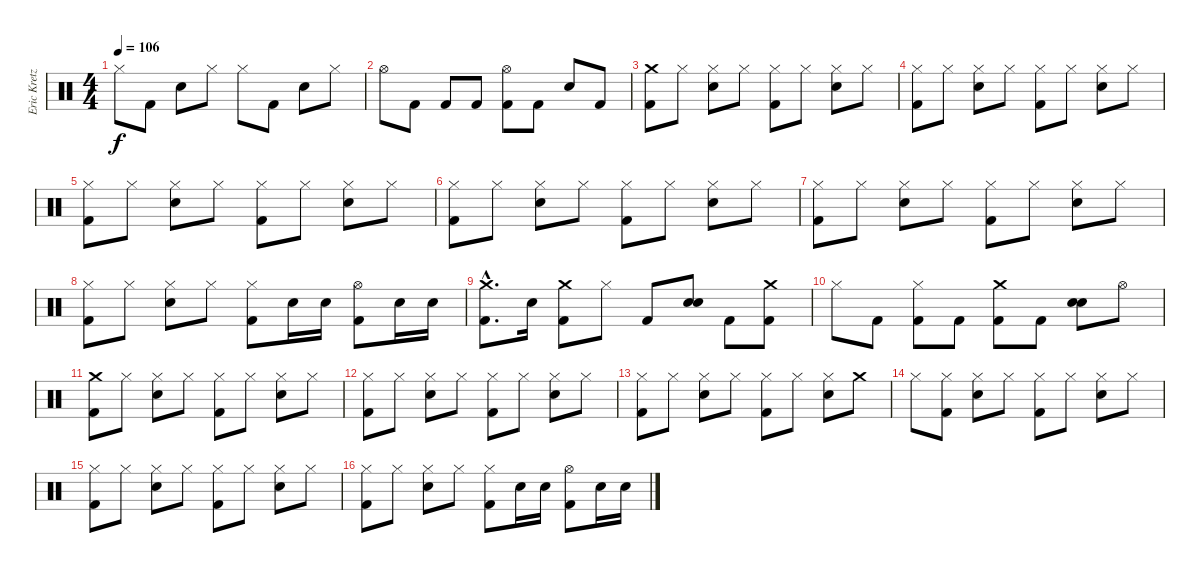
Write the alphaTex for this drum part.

\track ("Eric Kretz" "Eric Kretz") {instrument percussion}
\staff {score}
\articulation defaults
\ts (4 4)
\tempo 106
\clef neutral
\ks c "Hi-Hat (closed)".8{dy f} "Kick (hit) 2".8 "Electric Snare (hit)".8 "Hi-Hat (closed)".8 "Hi-Hat (closed)".8 "Kick (hit) 2".8 "Electric Snare (hit)".8 "Hi-Hat (closed)".8
|
"Hi-Hat (open)".8 "Kick (hit) 2".8 "Kick (hit) 2".8 "Kick (hit) 2".8 ("Hi-Hat (open)" "Kick (hit) 2").8 "Kick (hit) 2".8 "Electric Snare (hit)".8 "Kick (hit) 2".8 |
("Crash medium (hit)" "Kick (hit) 2").8 "Hi-Hat (closed)".8 ("Hi-Hat (closed)" "Electric Snare (hit)").8 "Hi-Hat (closed)".8 ("Hi-Hat (closed)" "Kick (hit) 2").8 "Hi-Hat (closed)".8 ("Hi-Hat (closed)" "Electric Snare (hit)").8 "Hi-Hat (closed)".8 |
("Hi-Hat (closed)" "Kick (hit) 2").8 "Hi-Hat (closed)".8 ("Hi-Hat (closed)" "Electric Snare (hit)").8 "Hi-Hat (closed)".8 ("Hi-Hat (closed)" "Kick (hit) 2").8 "Hi-Hat (closed)".8 ("Hi-Hat (closed)" "Electric Snare (hit)").8 "Hi-Hat (closed)".8 |
("Hi-Hat (closed)" "Kick (hit) 2").8 "Hi-Hat (closed)".8 ("Hi-Hat (closed)" "Electric Snare (hit)").8 "Hi-Hat (closed)".8 ("Hi-Hat (closed)" "Kick (hit) 2").8 "Hi-Hat (closed)".8 ("Hi-Hat (closed)" "Electric Snare (hit)").8 "Hi-Hat (closed)".8 |
("Hi-Hat (closed)" "Kick (hit) 2").8 "Hi-Hat (closed)".8 ("Hi-Hat (closed)" "Electric Snare (hit)").8 "Hi-Hat (closed)".8 ("Hi-Hat (closed)" "Kick (hit) 2").8 "Hi-Hat (closed)".8 ("Hi-Hat (closed)" "Electric Snare (hit)").8 "Hi-Hat (closed)".8 |
("Hi-Hat (closed)" "Kick (hit) 2").8 "Hi-Hat (closed)".8 ("Hi-Hat (closed)" "Electric Snare (hit)").8 "Hi-Hat (closed)".8 ("Hi-Hat (closed)" "Kick (hit) 2").8 "Hi-Hat (closed)".8 ("Hi-Hat (closed)" "Electric Snare (hit)").8 "Hi-Hat (closed)".8 |
("Hi-Hat (closed)" "Kick (hit) 2").8 "Hi-Hat (closed)".8 ("Hi-Hat (closed)" "Electric Snare (hit)").8 "Hi-Hat (closed)".8 ("Hi-Hat (closed)" "Kick (hit) 2").8 "Electric Snare (hit)".16 "Electric Snare (hit)".16 ("Hi-Hat (open)" "Kick (hit) 2").8 "Electric Snare (hit)".16 "Electric Snare (hit)".16 |
("Crash medium (hit)"{hac} "Kick (hit) 2"{hac}).8{d} "Electric Snare (hit)".16 ("Crash medium (hit)" "Kick (hit) 2").8 "Hi-Hat (closed)".8 "Kick (hit) 2".8 ("Electric Snare (hit)" "Electric Snare (hit)").8 "Kick (hit) 2".8 ("Crash medium (hit)" "Kick (hit) 2").8 |
"Hi-Hat (closed)".8 "Kick (hit) 2".8 ("Hi-Hat (closed)" "Kick (hit) 2").8 "Kick (hit) 2".8 ("Crash medium (hit)" "Kick (hit) 2").8 "Kick (hit) 2".8 ("Electric Snare (hit)" "Electric Snare (hit)").8 "Hi-Hat (open)".8 |
("Crash medium (hit)" "Kick (hit) 2").8 "Hi-Hat (closed)".8 ("Hi-Hat (closed)" "Electric Snare (hit)").8 "Hi-Hat (closed)".8 ("Hi-Hat (closed)" "Kick (hit) 2").8 "Hi-Hat (closed)".8 ("Hi-Hat (closed)" "Electric Snare (hit)").8 "Hi-Hat (closed)".8 |
("Hi-Hat (closed)" "Kick (hit) 2").8 "Hi-Hat (closed)".8 ("Hi-Hat (closed)" "Electric Snare (hit)").8 "Hi-Hat (closed)".8 ("Hi-Hat (closed)" "Kick (hit) 2").8 "Hi-Hat (closed)".8 ("Hi-Hat (closed)" "Electric Snare (hit)").8 "Hi-Hat (closed)".8 |
("Hi-Hat (closed)" "Kick (hit) 2").8 "Hi-Hat (closed)".8 ("Hi-Hat (closed)" "Electric Snare (hit)").8 "Hi-Hat (closed)".8 ("Hi-Hat (closed)" "Kick (hit) 2").8 "Hi-Hat (closed)".8 ("Hi-Hat (closed)" "Electric Snare (hit)").8 "Crash medium (hit)".8 |
"Hi-Hat (closed)".8 ("Hi-Hat (closed)" "Kick (hit) 2").8 ("Hi-Hat (closed)" "Electric Snare (hit)").8 "Hi-Hat (closed)".8 ("Hi-Hat (closed)" "Kick (hit) 2").8 "Hi-Hat (closed)".8 ("Hi-Hat (closed)" "Electric Snare (hit)").8 "Hi-Hat (closed)".8 |
("Hi-Hat (closed)" "Kick (hit) 2").8 "Hi-Hat (closed)".8 ("Hi-Hat (closed)" "Electric Snare (hit)").8 "Hi-Hat (closed)".8 ("Hi-Hat (closed)" "Kick (hit) 2").8 "Hi-Hat (closed)".8 ("Hi-Hat (closed)" "Electric Snare (hit)").8 "Hi-Hat (closed)".8 |
("Hi-Hat (closed)" "Kick (hit) 2").8 "Hi-Hat (closed)".8 ("Hi-Hat (closed)" "Electric Snare (hit)").8 "Hi-Hat (closed)".8 ("Hi-Hat (closed)" "Kick (hit) 2").8 "Electric Snare (hit)".16 "Electric Snare (hit)".16 ("Hi-Hat (open)" "Kick (hit) 2").8 "Electric Snare (hit)".16 "Electric Snare (hit)".16
